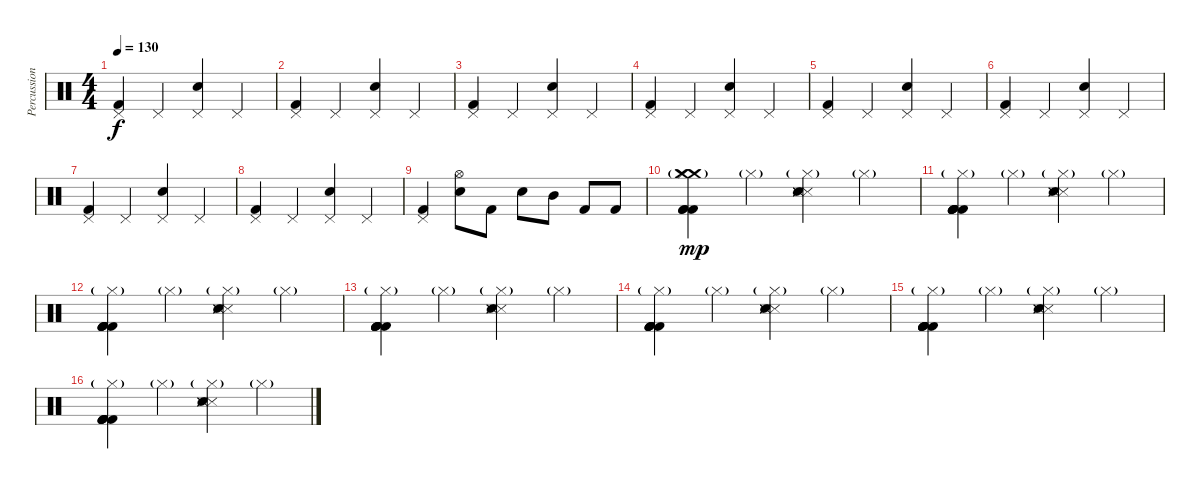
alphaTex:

\track ("Percussion" "Percussion") {instrument percussion}
\staff {score}
\articulation defaults
\ts (4 4)
\tempo 130
\clef neutral
\ks c
("Pedal Hi-Hat (hit)" "Kick (hit) 2").4{dy f} "Pedal Hi-Hat (hit)".4 ("Pedal Hi-Hat (hit)" "Snare (hit) 2").4 "Pedal Hi-Hat (hit)".4 |
("Pedal Hi-Hat (hit)" "Kick (hit) 2").4 "Pedal Hi-Hat (hit)".4 ("Pedal Hi-Hat (hit)" "Snare (hit) 2").4 "Pedal Hi-Hat (hit)".4 |
("Pedal Hi-Hat (hit)" "Kick (hit) 2").4 "Pedal Hi-Hat (hit)".4 ("Pedal Hi-Hat (hit)" "Snare (hit) 2").4 "Pedal Hi-Hat (hit)".4 |
("Pedal Hi-Hat (hit)" "Kick (hit) 2").4 "Pedal Hi-Hat (hit)".4 ("Pedal Hi-Hat (hit)" "Snare (hit) 2").4 "Pedal Hi-Hat (hit)".4 |
("Pedal Hi-Hat (hit)" "Kick (hit) 2").4 "Pedal Hi-Hat (hit)".4 ("Pedal Hi-Hat (hit)" "Snare (hit) 2").4 "Pedal Hi-Hat (hit)".4 |
("Pedal Hi-Hat (hit)" "Kick (hit) 2").4 "Pedal Hi-Hat (hit)".4 ("Pedal Hi-Hat (hit)" "Snare (hit) 2").4 "Pedal Hi-Hat (hit)".4 |
("Pedal Hi-Hat (hit)" "Kick (hit) 2").4 "Pedal Hi-Hat (hit)".4 ("Pedal Hi-Hat (hit)" "Snare (hit) 2").4 "Pedal Hi-Hat (hit)".4 |
("Pedal Hi-Hat (hit)" "Kick (hit) 2").4 "Pedal Hi-Hat (hit)".4 ("Pedal Hi-Hat (hit)" "Snare (hit) 2").4 "Pedal Hi-Hat (hit)".4 |
("Pedal Hi-Hat (hit)" "Kick (hit) 2").4 ("Snare (hit) 2" "Hi-Hat (open)").8 "Kick (hit) 2".8 "Snare (hit) 2".8 "Mid Tom (hit)".8 "Kick (hit) 2".8 "Kick (hit) 2".8 |
("Kick (hit) 2" "Kick (hit) 2" "Crash medium (hit)" "Crash medium (hit)" "Hi-Hat (closed)"{g} "Kick (hit) 2").4{dy mp} "Hi-Hat (closed)"{g}.4 ("Snare (side stick) 3" "Snare (side stick) 3" "Snare (side stick) 3" "Hi-Hat (closed)"{g} "Snare (hit)" "Snare (side stick) 3").4 "Hi-Hat (closed)"{g}.4 |
("Kick (hit) 2" "Kick (hit) 2" "Kick (hit) 2" "Kick (hit) 2" "Hi-Hat (closed)"{g} "Kick (hit) 2").4 "Hi-Hat (closed)"{g}.4 ("Snare (side stick) 3" "Snare (side stick) 3" "Snare (side stick) 3" "Hi-Hat (closed)"{g} "Snare (hit)" "Snare (side stick) 3").4 "Hi-Hat (closed)"{g}.4 |
("Kick (hit) 2" "Kick (hit) 2" "Kick (hit) 2" "Kick (hit) 2" "Hi-Hat (closed)"{g} "Kick (hit) 2").4 "Hi-Hat (closed)"{g}.4 ("Snare (side stick) 3" "Snare (side stick) 3" "Snare (side stick) 3" "Hi-Hat (closed)"{g} "Snare (hit)" "Snare (side stick) 3").4 "Hi-Hat (closed)"{g}.4 |
("Kick (hit) 2" "Kick (hit) 2" "Kick (hit) 2" "Kick (hit) 2" "Hi-Hat (closed)"{g} "Kick (hit) 2").4 "Hi-Hat (closed)"{g}.4 ("Snare (side stick) 3" "Snare (side stick) 3" "Snare (side stick) 3" "Hi-Hat (closed)"{g} "Snare (hit)" "Snare (side stick) 3").4 "Hi-Hat (closed)"{g}.4 |
("Kick (hit) 2" "Kick (hit) 2" "Kick (hit) 2" "Kick (hit) 2" "Hi-Hat (closed)"{g} "Kick (hit) 2").4 "Hi-Hat (closed)"{g}.4 ("Snare (side stick) 3" "Snare (side stick) 3" "Snare (side stick) 3" "Hi-Hat (closed)"{g} "Snare (hit)" "Snare (side stick) 3").4 "Hi-Hat (closed)"{g}.4 |
("Kick (hit) 2" "Kick (hit) 2" "Kick (hit) 2" "Kick (hit) 2" "Hi-Hat (closed)"{g} "Kick (hit) 2").4 "Hi-Hat (closed)"{g}.4 ("Snare (side stick) 3" "Snare (side stick) 3" "Snare (side stick) 3" "Hi-Hat (closed)"{g} "Snare (hit)" "Snare (side stick) 3").4 "Hi-Hat (closed)"{g}.4 |
("Kick (hit) 2" "Kick (hit) 2" "Kick (hit) 2" "Kick (hit) 2" "Hi-Hat (closed)"{g} "Kick (hit) 2").4 "Hi-Hat (closed)"{g}.4 ("Snare (side stick) 3" "Snare (side stick) 3" "Snare (side stick) 3" "Hi-Hat (closed)"{g} "Snare (hit)" "Snare (side stick) 3").4 "Hi-Hat (closed)"{g}.4
